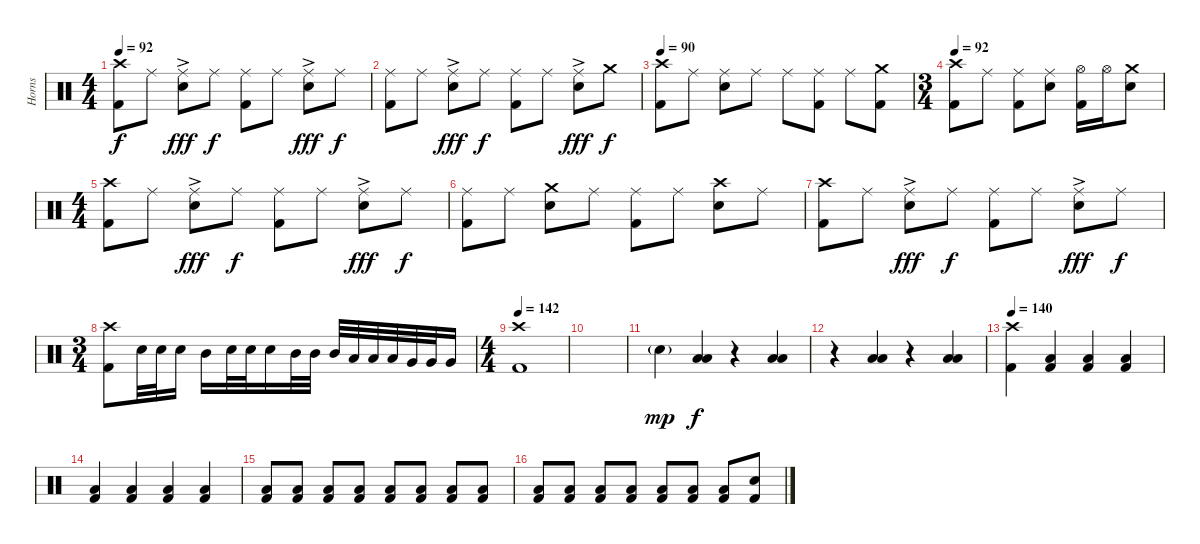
\track ("Horns" "Horns") {instrument percussion}
\staff {score}
\articulation defaults
\ts (4 4)
\tempo 92
\clef neutral
\ks c
("Crash high (hit)" "Kick (hit) 2").8{dy f} "Ride (middle)".8 ("Ride (middle)"{ac} "Snare (hit) 2").8{dy fff} "Ride (middle)".8{dy f} ("Ride (middle)" "Kick (hit) 2").8 "Ride (middle)".8 ("Ride (middle)"{ac} "Snare (hit) 2").8{dy fff} "Ride (middle)".8{dy f} |
("Ride (middle)" "Kick (hit) 2").8 "Ride (middle)".8 ("Ride (middle)"{ac} "Snare (hit) 2").8{dy fff} "Ride (middle)".8{dy f} ("Ride (middle)" "Kick (hit) 2").8 "Ride (middle)".8 ("Ride (middle)"{ac} "Snare (hit) 2").8{dy fff} "Crash medium (hit)".8{dy f} |
\tempo 90
("Crash high (hit)" "Kick (hit) 2").8 "Ride (middle)".8 ("Ride (middle)" "Snare (hit) 2").8 "Ride (middle)".8 "Ride (middle)".8 ("Ride (middle)" "Kick (hit) 2").8 "Ride (middle)".8 ("Crash medium (hit)" "Kick (hit) 2").8 |
\ts (3 4)
\tempo 92
("Crash high (hit)" "Kick (hit) 2").8 "Ride (middle)".8 ("Ride (middle)" "Kick (hit) 2").8 ("Ride (middle)" "Snare (hit) 2").8 ("Hi-Hat (open)" "Kick (hit) 2").16 "Hi-Hat (open)".16 ("Crash medium (hit)" "Snare (hit) 2").8 |
\ts (4 4)
("Crash high (hit)" "Kick (hit) 2").8 "Ride (middle)".8 ("Ride (middle)"{ac} "Snare (hit) 2").8{dy fff} "Ride (middle)".8{dy f} ("Ride (middle)" "Kick (hit) 2").8 "Ride (middle)".8 ("Ride (middle)"{ac} "Snare (hit) 2").8{dy fff} "Ride (middle)".8{dy f} |
("Ride (middle)" "Kick (hit) 2").8 "Ride (middle)".8 ("Crash medium (hit)" "Snare (hit) 2").8 "Ride (middle)".8 ("Ride (middle)" "Kick (hit) 2").8 "Ride (middle)".8 ("Crash high (hit)" "Snare (hit) 2").8 "Ride (middle)".8 |
("Crash high (hit)" "Kick (hit) 2").8 "Ride (middle)".8 ("Ride (middle)"{ac} "Snare (hit) 2").8{dy fff} "Ride (middle)".8{dy f} ("Ride (middle)" "Kick (hit) 2").8 "Ride (middle)".8 ("Ride (middle)"{ac} "Snare (hit) 2").8{dy fff} "Ride (middle)".8{dy f} |
\ts (3 4)
("Crash high (hit)" "Kick (hit) 2").8 "Snare (hit) 2".32 "Snare (hit) 2".32 "Snare (hit) 2".16 "Mid Tom (hit)".16 "Snare (hit) 2".32 "Snare (hit) 2".32 "Snare (hit) 2".16 "Mid Tom (hit)".32 "Mid Tom (hit)".32 "Mid Tom (hit)".32 "Low Tom (hit)".32 "Low Tom (hit)".32 "Low Tom (hit)".32 "Very Low Tom (hit)".32 "Very Low Tom (hit)".32 "Very Low Tom (hit)".16 |
\ts (4 4)
\tempo 142
("Crash high (hit)" "Kick (hit) 2").1 |
|
"Snare (hit) 2"{g}.4{dy mp} ("Low Floor Tom (hit)" "Low Floor Tom (hit)").4{dy f} r.4 ("Low Floor Tom (hit)" "Low Floor Tom (hit)").4 |
r.4 ("Low Floor Tom (hit)" "Low Floor Tom (hit)").4 r.4 ("Low Floor Tom (hit)" "Low Floor Tom (hit)").4 |
\tempo 140
("Crash high (hit)" "Kick (hit) 2").4 ("Low Floor Tom (hit)" "Kick (hit) 2").4 ("Low Floor Tom (hit)" "Kick (hit) 2").4 ("Low Floor Tom (hit)" "Kick (hit) 2").4 |
("Low Floor Tom (hit)" "Kick (hit) 2").4 ("Low Floor Tom (hit)" "Kick (hit) 2").4 ("Low Floor Tom (hit)" "Kick (hit) 2").4 ("Low Floor Tom (hit)" "Kick (hit) 2").4 |
("Low Floor Tom (hit)" "Kick (hit) 2").8 ("Low Floor Tom (hit)" "Kick (hit) 2").8 ("Low Floor Tom (hit)" "Kick (hit) 2").8 ("Low Floor Tom (hit)" "Kick (hit) 2").8 ("Low Floor Tom (hit)" "Kick (hit) 2").8 ("Low Floor Tom (hit)" "Kick (hit) 2").8 ("Low Floor Tom (hit)" "Kick (hit) 2").8 ("Low Floor Tom (hit)" "Kick (hit) 2").8 |
("Low Floor Tom (hit)" "Kick (hit) 2").8 ("Low Floor Tom (hit)" "Kick (hit) 2").8 ("Low Floor Tom (hit)" "Kick (hit) 2").8 ("Low Floor Tom (hit)" "Kick (hit) 2").8 ("Low Floor Tom (hit)" "Kick (hit) 2").8 ("Low Floor Tom (hit)" "Kick (hit) 2").8 ("Low Floor Tom (hit)" "Kick (hit) 2").8 ("Snare (hit) 2" "Kick (hit) 2").8
